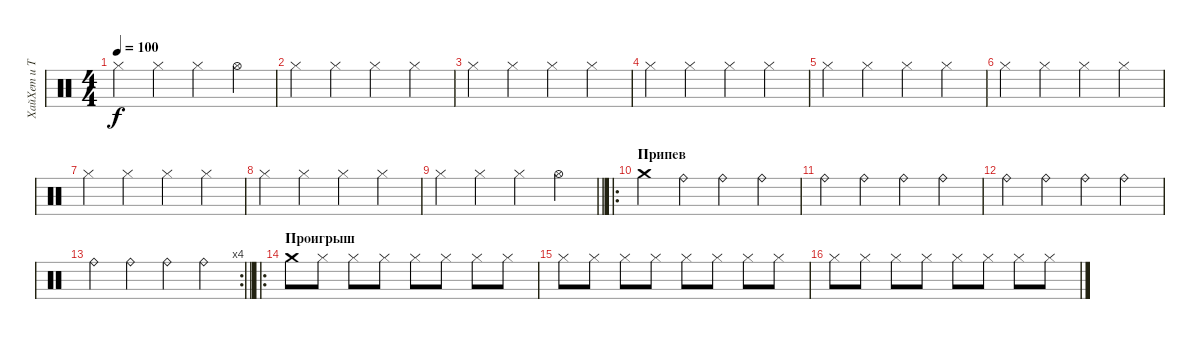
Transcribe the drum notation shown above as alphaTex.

\track ("ХайХет и Тарелка" "ХайХет и Т") {instrument percussion}
\staff {score}
\articulation defaults
\ts (4 4)
\tempo 100
\clef neutral
\ks c "Hi-Hat (closed)".4{dy f} "Hi-Hat (closed)".4 "Hi-Hat (closed)".4 "Hi-Hat (open)".4
|
"Hi-Hat (closed)".4 "Hi-Hat (closed)".4 "Hi-Hat (closed)".4 "Hi-Hat (closed)".4 |
"Hi-Hat (closed)".4 "Hi-Hat (closed)".4 "Hi-Hat (closed)".4 "Hi-Hat (closed)".4 |
"Hi-Hat (closed)".4 "Hi-Hat (closed)".4 "Hi-Hat (closed)".4 "Hi-Hat (closed)".4 |
"Hi-Hat (closed)".4 "Hi-Hat (closed)".4 "Hi-Hat (closed)".4 "Hi-Hat (closed)".4 |
"Hi-Hat (closed)".4 "Hi-Hat (closed)".4 "Hi-Hat (closed)".4 "Hi-Hat (closed)".4 |
"Hi-Hat (closed)".4 "Hi-Hat (closed)".4 "Hi-Hat (closed)".4 "Hi-Hat (closed)".4 |
"Hi-Hat (closed)".4 "Hi-Hat (closed)".4 "Hi-Hat (closed)".4 "Hi-Hat (closed)".4 |
\barLineRight lightlight "Hi-Hat (closed)".4 "Hi-Hat (closed)".4 "Hi-Hat (closed)".4 "Hi-Hat (open)".4
|
\ro
\section ("" "Припев")
"Crash medium (hit)".4 "Ride (bell)".4 "Ride (bell)".4 "Ride (bell)".4 |
"Ride (bell)".4 "Ride (bell)".4 "Ride (bell)".4 "Ride (bell)".4 |
"Ride (bell)".4 "Ride (bell)".4 "Ride (bell)".4 "Ride (bell)".4 |
\rc 4
\barLineRight lightlight "Ride (bell)".4 "Ride (bell)".4 "Ride (bell)".4 "Ride (bell)".4
|
\ro
\section ("" "Проигрыш")
"Crash medium (hit)".8 "Hi-Hat (closed)".8 "Hi-Hat (closed)".8 "Hi-Hat (closed)".8 "Hi-Hat (closed)".8 "Hi-Hat (closed)".8 "Hi-Hat (closed)".8 "Hi-Hat (closed)".8 |
"Hi-Hat (closed)".8 "Hi-Hat (closed)".8 "Hi-Hat (closed)".8 "Hi-Hat (closed)".8 "Hi-Hat (closed)".8 "Hi-Hat (closed)".8 "Hi-Hat (closed)".8 "Hi-Hat (closed)".8 |
"Hi-Hat (closed)".8 "Hi-Hat (closed)".8 "Hi-Hat (closed)".8 "Hi-Hat (closed)".8 "Hi-Hat (closed)".8 "Hi-Hat (closed)".8 "Hi-Hat (closed)".8 "Hi-Hat (closed)".8
